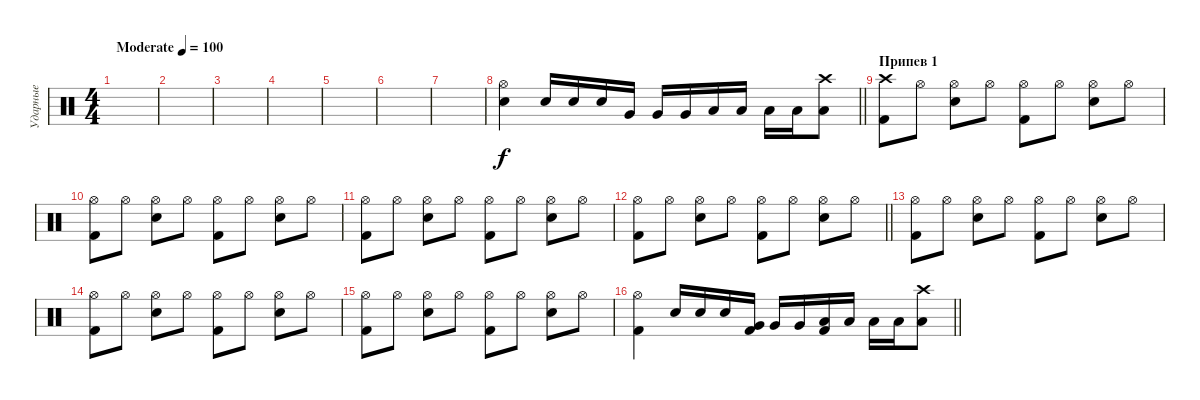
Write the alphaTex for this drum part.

\track ("Ударные" "Ударные") {instrument percussion}
\staff {score}
\articulation defaults
\ts (4 4)
\tempo (100 "Moderate")
\clef neutral
\ks c
|
|
|
|
|
|
|
\barLineRight lightlight
("Hi-Hat (open)" "Electric Snare (hit)").4 "Electric Snare (hit)".16 "Electric Snare (hit)".16 "Electric Snare (hit)".16 "Very Low Tom (hit)".16 "Very Low Tom (hit)".16 "Very Low Tom (hit)".16 "Low Tom (hit)".16 "Low Tom (hit)".16 "Low Tom (hit)".16 "Low Tom (hit)".16 ("Crash high (hit)" "Low Tom (hit)").8 |
\section ("" "Припев 1")
("Crash high (hit)" "Kick (hit) 2").8 "Hi-Hat (open)".8 ("Hi-Hat (open)" "Electric Snare (hit)").8 "Hi-Hat (open)".8 ("Hi-Hat (open)" "Kick (hit) 2").8 "Hi-Hat (open)".8 ("Hi-Hat (open)" "Electric Snare (hit)").8 "Hi-Hat (open)".8 |
("Hi-Hat (open)" "Kick (hit) 2").8 "Hi-Hat (open)".8 ("Hi-Hat (open)" "Electric Snare (hit)").8 "Hi-Hat (open)".8 ("Hi-Hat (open)" "Kick (hit) 2").8 "Hi-Hat (open)".8 ("Hi-Hat (open)" "Electric Snare (hit)").8 "Hi-Hat (open)".8 |
("Hi-Hat (open)" "Kick (hit) 2").8 "Hi-Hat (open)".8 ("Hi-Hat (open)" "Electric Snare (hit)").8 "Hi-Hat (open)".8 ("Hi-Hat (open)" "Kick (hit) 2").8 "Hi-Hat (open)".8 ("Hi-Hat (open)" "Electric Snare (hit)").8 "Hi-Hat (open)".8 |
\barLineRight lightlight
("Hi-Hat (open)" "Kick (hit) 2").8 "Hi-Hat (open)".8 ("Hi-Hat (open)" "Electric Snare (hit)").8 "Hi-Hat (open)".8 ("Hi-Hat (open)" "Kick (hit) 2").8 "Hi-Hat (open)".8 ("Hi-Hat (open)" "Electric Snare (hit)").8 "Hi-Hat (open)".8 |
("Hi-Hat (open)" "Kick (hit) 2").8 "Hi-Hat (open)".8 ("Hi-Hat (open)" "Electric Snare (hit)").8 "Hi-Hat (open)".8 ("Hi-Hat (open)" "Kick (hit) 2").8 "Hi-Hat (open)".8 ("Hi-Hat (open)" "Electric Snare (hit)").8 "Hi-Hat (open)".8 |
("Hi-Hat (open)" "Kick (hit) 2").8 "Hi-Hat (open)".8 ("Hi-Hat (open)" "Electric Snare (hit)").8 "Hi-Hat (open)".8 ("Hi-Hat (open)" "Kick (hit) 2").8 "Hi-Hat (open)".8 ("Hi-Hat (open)" "Electric Snare (hit)").8 "Hi-Hat (open)".8 |
("Hi-Hat (open)" "Kick (hit) 2").8 "Hi-Hat (open)".8 ("Hi-Hat (open)" "Electric Snare (hit)").8 "Hi-Hat (open)".8 ("Hi-Hat (open)" "Kick (hit) 2").8 "Hi-Hat (open)".8 ("Hi-Hat (open)" "Electric Snare (hit)").8 "Hi-Hat (open)".8 |
\barLineRight lightlight
("Hi-Hat (open)" "Kick (hit) 2").4 "Electric Snare (hit)".16 "Electric Snare (hit)".16 "Electric Snare (hit)".16 ("Very Low Tom (hit)" "Kick (hit) 2").16 "Very Low Tom (hit)".16 "Very Low Tom (hit)".16 ("Low Tom (hit)" "Kick (hit) 2").16 "Low Tom (hit)".16 "Low Tom (hit)".16 "Low Tom (hit)".16 ("Crash high (hit)" "Low Tom (hit)").8
